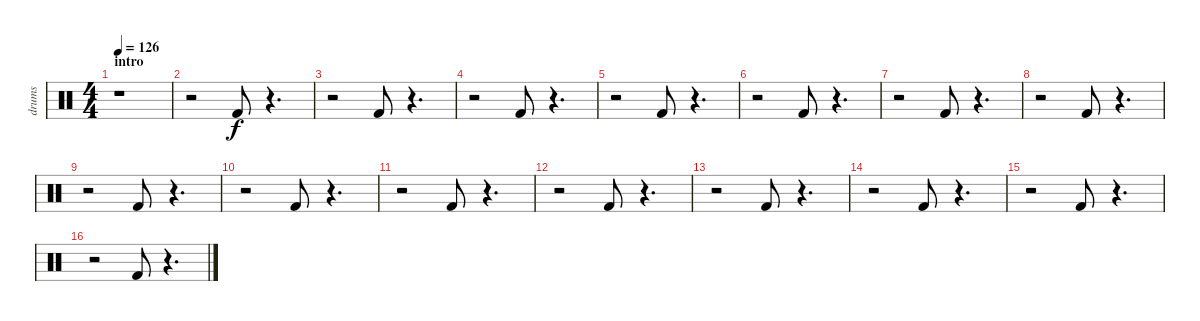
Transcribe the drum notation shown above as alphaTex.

\track ("drums" "drums") {instrument percussion}
\staff {score}
\articulation defaults
\ts (4 4)
\section ("" "intro")
\tempo 126
\clef neutral
\ks c
r.1{dy f} |
r.2 "Kick (hit) 2".8 r.4{d} |
r.2 "Kick (hit) 2".8 r.4{d} |
r.2 "Kick (hit) 2".8 r.4{d} |
r.2 "Kick (hit) 2".8 r.4{d} |
r.2 "Kick (hit) 2".8 r.4{d} |
r.2 "Kick (hit) 2".8 r.4{d} |
r.2 "Kick (hit) 2".8 r.4{d} |
r.2 "Kick (hit) 2".8 r.4{d} |
r.2 "Kick (hit) 2".8 r.4{d} |
r.2 "Kick (hit) 2".8 r.4{d} |
r.2 "Kick (hit) 2".8 r.4{d} |
r.2 "Kick (hit) 2".8 r.4{d} |
r.2 "Kick (hit) 2".8 r.4{d} |
r.2 "Kick (hit) 2".8 r.4{d} |
r.2 "Kick (hit) 2".8 r.4{d}
